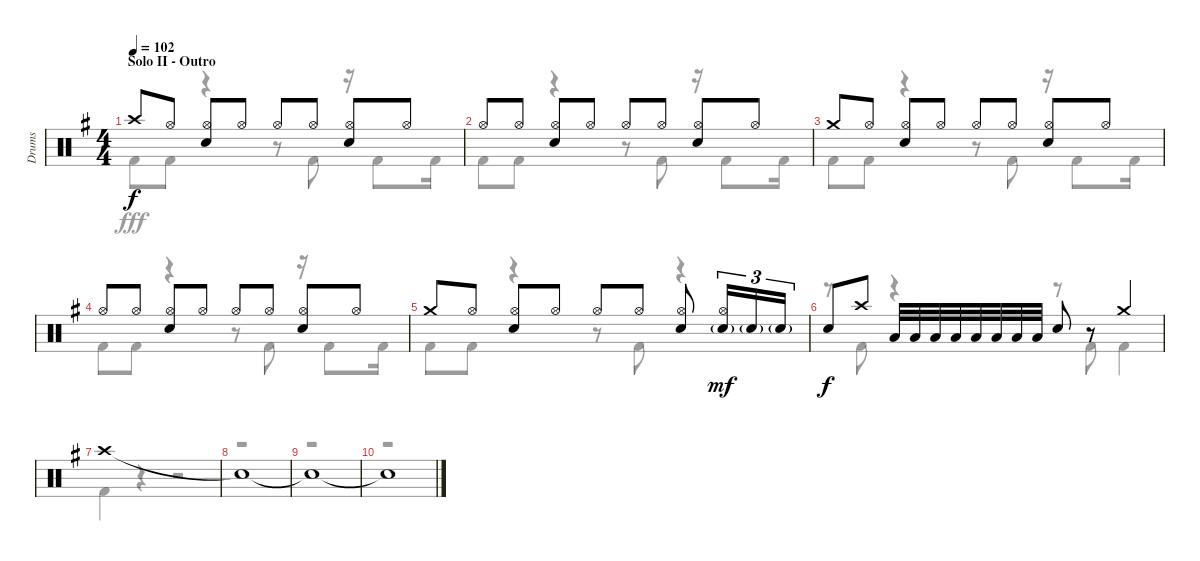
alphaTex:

\track ("Drums" "Drums") {instrument percussion}
\staff {score}
\articulation defaults
\voice
\ts (4 4)
\section ("" "Solo II - Outro")
\tempo 102
\clef neutral
\ks g "Crash high (hit)".8{dy f} "Hi-Hat (open)".8
("Hi-Hat (open)" "Snare (hit) 2").8 "Hi-Hat (open)".8 "Hi-Hat (open)".8 "Hi-Hat (open)".8 ("Hi-Hat (open)" "Snare (hit) 2").8 "Hi-Hat (open)".8 |
"Hi-Hat (open)".8 "Hi-Hat (open)".8 ("Hi-Hat (open)" "Snare (hit) 2").8 "Hi-Hat (open)".8 "Hi-Hat (open)".8 "Hi-Hat (open)".8 ("Hi-Hat (open)" "Snare (hit) 2").8 "Hi-Hat (open)".8 |
"Crash medium (hit)".8 "Hi-Hat (open)".8 ("Hi-Hat (open)" "Snare (hit) 2").8 "Hi-Hat (open)".8 "Hi-Hat (open)".8 "Hi-Hat (open)".8 ("Hi-Hat (open)" "Snare (hit) 2").8 "Hi-Hat (open)".8 |
"Hi-Hat (open)".8 "Hi-Hat (open)".8 ("Hi-Hat (open)" "Snare (hit) 2").8 "Hi-Hat (open)".8 "Hi-Hat (open)".8 "Hi-Hat (open)".8 ("Hi-Hat (open)" "Snare (hit) 2").8 "Hi-Hat (open)".8 |
"Crash medium (hit)".8 "Hi-Hat (open)".8 ("Hi-Hat (open)" "Snare (hit) 2").8 "Hi-Hat (open)".8 "Hi-Hat (open)".8 "Hi-Hat (open)".8 ("Hi-Hat (open)" "Snare (hit) 2").8 ("Hi-Hat (open)" "Snare (hit) 2"{g}).16{tu (3 2) dy mf} "Snare (hit) 2"{g}.16{tu (3 2)} "Snare (hit) 2"{g}.16{tu (3 2)} |
"Snare (hit) 2".8{dy f} "Crash high (hit)".8 "Low Tom (hit)".32 "Low Tom (hit)".32 "Low Tom (hit)".32 "Low Tom (hit)".32 "Low Tom (hit)".32 "Low Tom (hit)".32 "Low Tom (hit)".32 "Low Tom (hit)".32 "Snare (hit) 2".8 r.8 "Crash medium (hit)".4 |
"Crash high (hit)".1 |
"Snare (hit)"{t}.1 |
"Snare (hit)"{t}.1 |
"Snare (hit)"{t}.1
\voice
\clef neutral
\ottava regular
\simile none
\ks g "Kick (hit) 2".8{dy fff} "Kick (hit) 2".8
r.4 r.8 "Kick (hit) 2".8 r.16 "Kick (hit) 2".8 "Kick (hit) 2".16 |
"Kick (hit) 2".8 "Kick (hit) 2".8 r.4 r.8 "Kick (hit) 2".8 r.16 "Kick (hit) 2".8 "Kick (hit) 2".16 |
"Kick (hit) 2".8 "Kick (hit) 2".8 r.4 r.8 "Kick (hit) 2".8 r.16 "Kick (hit) 2".8 "Kick (hit) 2".16 |
"Kick (hit) 2".8 "Kick (hit) 2".8 r.4 r.8 "Kick (hit) 2".8 r.16 "Kick (hit) 2".8 "Kick (hit) 2".16 |
"Kick (hit) 2".8 "Kick (hit) 2".8 r.4 r.8 "Kick (hit) 2".8 r.4 |
r.8 "Kick (hit) 2".8 r.4 r.8 "Kick (hit) 2".8 "Kick (hit) 2".4 |
"Kick (hit) 2".4 r.4 r.2 |
r.1 |
r.1 |
r.1
